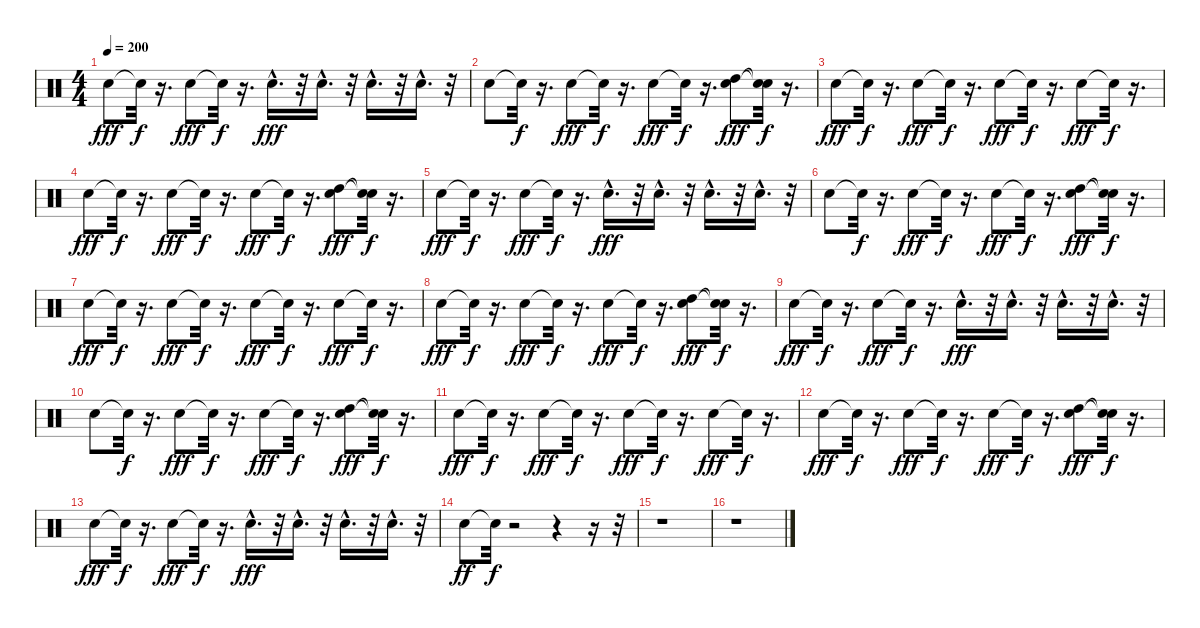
\track "" {instrument percussion}
\staff {score}
\articulation defaults
\ts (4 4)
\tempo 200
\clef neutral
\ks c "Snare (hit) 2".8{dy fff} "Snare (hit)"{t}.32{dy f}
r.16{d} "Snare (hit) 2".8{dy fff} "Snare (hit)"{t}.32{dy f} r.16{d} "Snare (hit) 2"{hac}.16{d dy fff} r.32 "Snare (hit) 2"{hac}.16{d} r.32 "Snare (hit) 2"{hac}.16{d} r.32 "Snare (hit) 2"{hac}.16{d} r.32 |
"Snare (hit) 2".8 "Snare (hit)"{t}.32{dy f} r.16{d} "Snare (hit) 2".8{dy fff} "Snare (hit)"{t}.32{dy f} r.16{d} "Snare (hit) 2".8{dy fff} "Snare (hit)"{t}.32{dy f} r.16{d} ("Snare (hit) 2" "High Tom (hit)").8{dy fff} ("Snare (hit)"{t} "Snare (hit)"{t}).32{dy f} r.16{d} |
"Snare (hit) 2".8{dy fff} "Snare (hit)"{t}.32{dy f} r.16{d} "Snare (hit) 2".8{dy fff} "Snare (hit)"{t}.32{dy f} r.16{d} "Snare (hit) 2".8{dy fff} "Snare (hit)"{t}.32{dy f} r.16{d} "Snare (hit) 2".8{dy fff} "Snare (hit)"{t}.32{dy f} r.16{d} |
"Snare (hit) 2".8{dy fff} "Snare (hit)"{t}.32{dy f} r.16{d} "Snare (hit) 2".8{dy fff} "Snare (hit)"{t}.32{dy f} r.16{d} "Snare (hit) 2".8{dy fff} "Snare (hit)"{t}.32{dy f} r.16{d} ("Snare (hit) 2" "High Tom (hit)").8{dy fff} ("Snare (hit)"{t} "Snare (hit)"{t}).32{dy f} r.16{d} |
"Snare (hit) 2".8{dy fff} "Snare (hit)"{t}.32{dy f} r.16{d} "Snare (hit) 2".8{dy fff} "Snare (hit)"{t}.32{dy f} r.16{d} "Snare (hit) 2"{hac}.16{d dy fff} r.32 "Snare (hit) 2"{hac}.16{d} r.32 "Snare (hit) 2"{hac}.16{d} r.32 "Snare (hit) 2"{hac}.16{d} r.32 |
"Snare (hit) 2".8 "Snare (hit)"{t}.32{dy f} r.16{d} "Snare (hit) 2".8{dy fff} "Snare (hit)"{t}.32{dy f} r.16{d} "Snare (hit) 2".8{dy fff} "Snare (hit)"{t}.32{dy f} r.16{d} ("Snare (hit) 2" "High Tom (hit)").8{dy fff} ("Snare (hit)"{t} "Snare (hit)"{t}).32{dy f} r.16{d} |
"Snare (hit) 2".8{dy fff} "Snare (hit)"{t}.32{dy f} r.16{d} "Snare (hit) 2".8{dy fff} "Snare (hit)"{t}.32{dy f} r.16{d} "Snare (hit) 2".8{dy fff} "Snare (hit)"{t}.32{dy f} r.16{d} "Snare (hit) 2".8{dy fff} "Snare (hit)"{t}.32{dy f} r.16{d} |
"Snare (hit) 2".8{dy fff} "Snare (hit)"{t}.32{dy f} r.16{d} "Snare (hit) 2".8{dy fff} "Snare (hit)"{t}.32{dy f} r.16{d} "Snare (hit) 2".8{dy fff} "Snare (hit)"{t}.32{dy f} r.16{d} ("Snare (hit) 2" "High Tom (hit)").8{dy fff} ("Snare (hit)"{t} "Snare (hit)"{t}).32{dy f} r.16{d} |
"Snare (hit) 2".8{dy fff} "Snare (hit)"{t}.32{dy f} r.16{d} "Snare (hit) 2".8{dy fff} "Snare (hit)"{t}.32{dy f} r.16{d} "Snare (hit) 2"{hac}.16{d dy fff} r.32 "Snare (hit) 2"{hac}.16{d} r.32 "Snare (hit) 2"{hac}.16{d} r.32 "Snare (hit) 2"{hac}.16{d} r.32 |
"Snare (hit) 2".8 "Snare (hit)"{t}.32{dy f} r.16{d} "Snare (hit) 2".8{dy fff} "Snare (hit)"{t}.32{dy f} r.16{d} "Snare (hit) 2".8{dy fff} "Snare (hit)"{t}.32{dy f} r.16{d} ("Snare (hit) 2" "High Tom (hit)").8{dy fff} ("Snare (hit)"{t} "Snare (hit)"{t}).32{dy f} r.16{d} |
"Snare (hit) 2".8{dy fff} "Snare (hit)"{t}.32{dy f} r.16{d} "Snare (hit) 2".8{dy fff} "Snare (hit)"{t}.32{dy f} r.16{d} "Snare (hit) 2".8{dy fff} "Snare (hit)"{t}.32{dy f} r.16{d} "Snare (hit) 2".8{dy fff} "Snare (hit)"{t}.32{dy f} r.16{d} |
"Snare (hit) 2".8{dy fff} "Snare (hit)"{t}.32{dy f} r.16{d} "Snare (hit) 2".8{dy fff} "Snare (hit)"{t}.32{dy f} r.16{d} "Snare (hit) 2".8{dy fff} "Snare (hit)"{t}.32{dy f} r.16{d} ("Snare (hit) 2" "High Tom (hit)").8{dy fff} ("Snare (hit)"{t} "Snare (hit)"{t}).32{dy f} r.16{d} |
"Snare (hit) 2".8{dy fff} "Snare (hit)"{t}.32{dy f} r.16{d} "Snare (hit) 2".8{dy fff} "Snare (hit)"{t}.32{dy f} r.16{d} "Snare (hit) 2"{hac}.16{d dy fff} r.32 "Snare (hit) 2"{hac}.16{d} r.32 "Snare (hit) 2"{hac}.16{d} r.32 "Snare (hit) 2"{hac}.16{d} r.32 |
"Snare (hit) 2".8{dy ff} "Snare (hit)"{t}.32{dy f} r.2 r.4 r.16 r.32 |
r.1 |
r.1
